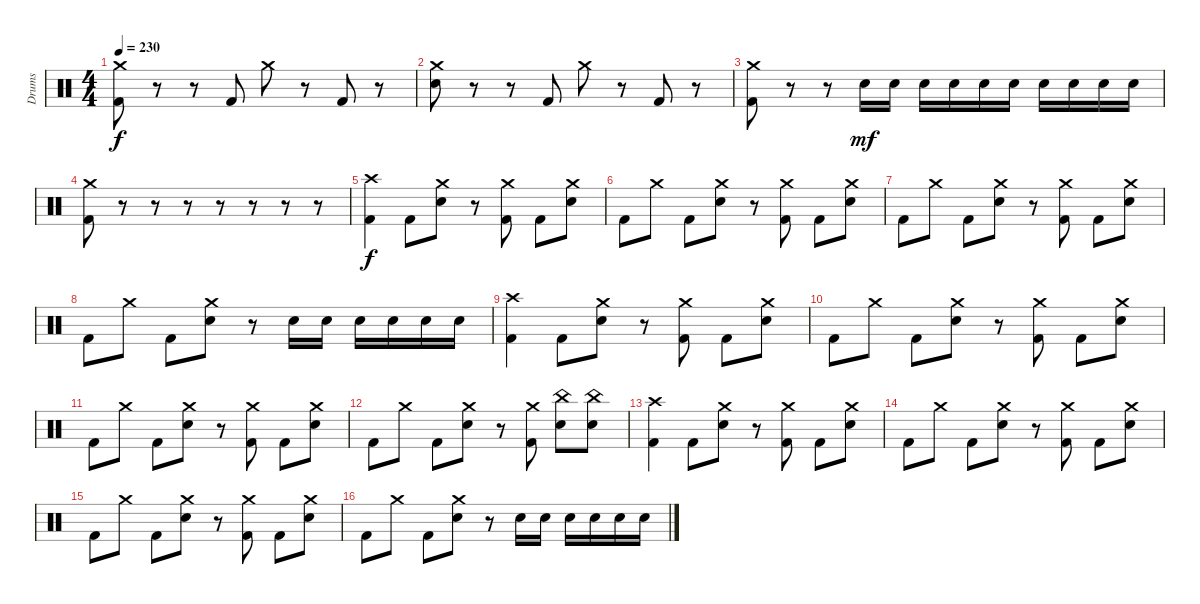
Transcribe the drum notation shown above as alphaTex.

\track ("Drums" "Drums") {instrument percussion}
\staff {score}
\articulation defaults
\ts (4 4)
\tempo 230
\clef neutral
\ks c
("Kick (hit) 2" "Crash medium (hit)").8{dy f} r.8 r.8 "Kick (hit) 2".8 "Crash medium (hit)".8 r.8 "Kick (hit) 2".8 r.8 |
("Electric Snare (hit)" "Crash medium (hit)").8 r.8 r.8 "Kick (hit) 2".8 "Crash medium (hit)".8 r.8 "Kick (hit) 2".8 r.8 |
("Kick (hit) 2" "Crash medium (hit)").8 r.8 r.8 "Electric Snare (hit)".16{dy mf} "Electric Snare (hit)".16 "Electric Snare (hit)".16 "Electric Snare (hit)".16 "Electric Snare (hit)".16 "Electric Snare (hit)".16 "Electric Snare (hit)".16 "Electric Snare (hit)".16 "Electric Snare (hit)".16 "Electric Snare (hit)".16 |
("Kick (hit) 2" "Crash medium (hit)").8 r.8 r.8 r.8 r.8 r.8 r.8 r.8 |
("Kick (hit) 2" "Crash high (hit)").4{dy f} "Kick (hit) 2".8 ("Electric Snare (hit)" "Crash medium (hit)").8 r.8 ("Kick (hit) 2" "Crash medium (hit)").8 "Kick (hit) 2".8 ("Electric Snare (hit)" "Crash medium (hit)").8 |
"Kick (hit) 2".8 "Crash medium (hit)".8 "Kick (hit) 2".8 ("Electric Snare (hit)" "Crash medium (hit)").8 r.8 ("Kick (hit) 2" "Crash medium (hit)").8 "Kick (hit) 2".8 ("Electric Snare (hit)" "Crash medium (hit)").8 |
"Kick (hit) 2".8 "Crash medium (hit)".8 "Kick (hit) 2".8 ("Electric Snare (hit)" "Crash medium (hit)").8 r.8 ("Kick (hit) 2" "Crash medium (hit)").8 "Kick (hit) 2".8 ("Electric Snare (hit)" "Crash medium (hit)").8 |
"Kick (hit) 2".8 "Crash medium (hit)".8 "Kick (hit) 2".8 ("Electric Snare (hit)" "Crash medium (hit)").8 r.8 "Electric Snare (hit)".16 "Electric Snare (hit)".16 "Electric Snare (hit)".16 "Electric Snare (hit)".16 "Electric Snare (hit)".16 "Electric Snare (hit)".16 |
("Kick (hit) 2" "Crash high (hit)").4 "Kick (hit) 2".8 ("Electric Snare (hit)" "Crash medium (hit)").8 r.8 ("Kick (hit) 2" "Crash medium (hit)").8 "Kick (hit) 2".8 ("Electric Snare (hit)" "Crash medium (hit)").8 |
"Kick (hit) 2".8 "Crash medium (hit)".8 "Kick (hit) 2".8 ("Electric Snare (hit)" "Crash medium (hit)").8 r.8 ("Kick (hit) 2" "Crash medium (hit)").8 "Kick (hit) 2".8 ("Electric Snare (hit)" "Crash medium (hit)").8 |
"Kick (hit) 2".8 "Crash medium (hit)".8 "Kick (hit) 2".8 ("Electric Snare (hit)" "Crash medium (hit)").8 r.8 ("Kick (hit) 2" "Crash medium (hit)").8 "Kick (hit) 2".8 ("Electric Snare (hit)" "Crash medium (hit)").8 |
"Kick (hit) 2".8 "Crash medium (hit)".8 "Kick (hit) 2".8 ("Electric Snare (hit)" "Crash medium (hit)").8 r.8 ("Kick (hit) 2" "Crash medium (hit)").8 ("Electric Snare (hit)" "China (hit)").8 ("Electric Snare (hit)" "China (hit)").8 |
("Kick (hit) 2" "Crash high (hit)").4 "Kick (hit) 2".8 ("Electric Snare (hit)" "Crash medium (hit)").8 r.8 ("Kick (hit) 2" "Crash medium (hit)").8 "Kick (hit) 2".8 ("Electric Snare (hit)" "Crash medium (hit)").8 |
"Kick (hit) 2".8 "Crash medium (hit)".8 "Kick (hit) 2".8 ("Electric Snare (hit)" "Crash medium (hit)").8 r.8 ("Kick (hit) 2" "Crash medium (hit)").8 "Kick (hit) 2".8 ("Electric Snare (hit)" "Crash medium (hit)").8 |
"Kick (hit) 2".8 "Crash medium (hit)".8 "Kick (hit) 2".8 ("Electric Snare (hit)" "Crash medium (hit)").8 r.8 ("Kick (hit) 2" "Crash medium (hit)").8 "Kick (hit) 2".8 ("Electric Snare (hit)" "Crash medium (hit)").8 |
"Kick (hit) 2".8 "Crash medium (hit)".8 "Kick (hit) 2".8 ("Electric Snare (hit)" "Crash medium (hit)").8 r.8 "Electric Snare (hit)".16 "Electric Snare (hit)".16 "Electric Snare (hit)".16 "Electric Snare (hit)".16 "Electric Snare (hit)".16 "Electric Snare (hit)".16
